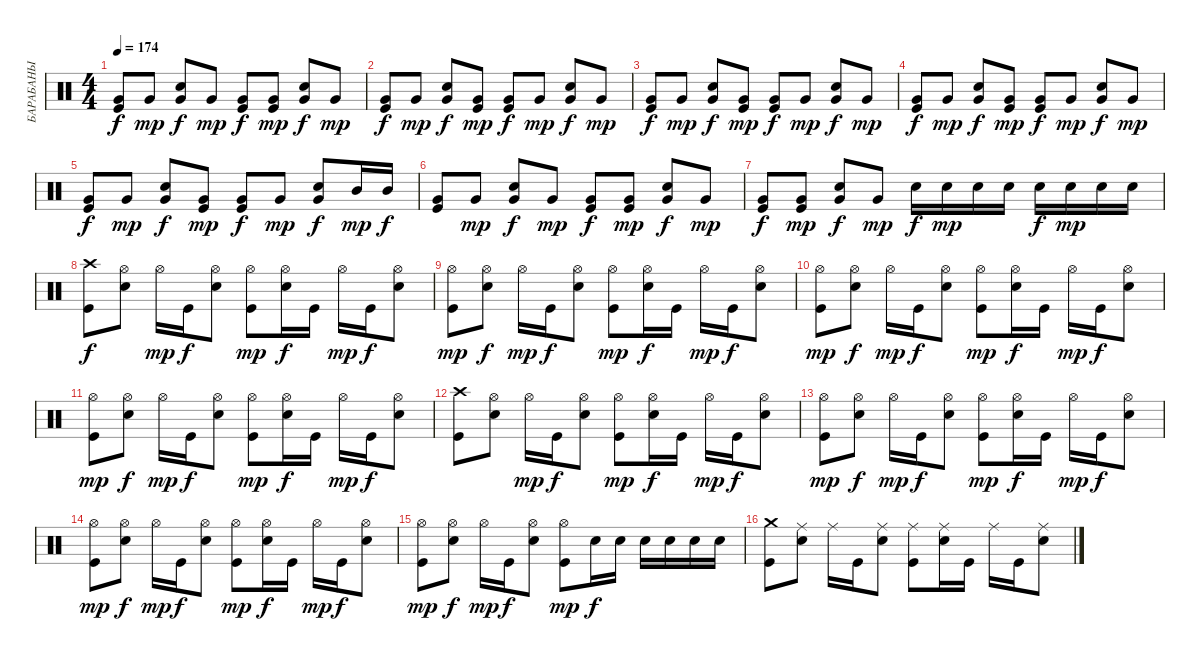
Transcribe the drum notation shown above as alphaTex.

\track ("БАРАБАНЫ" "БАРАБАНЫ") {instrument percussion}
\staff {score}
\articulation defaults
\ts (4 4)
\tempo 174
\clef neutral
\ks c
("Very Low Tom (hit)" "Kick (hit)").8{dy f} "Very Low Tom (hit)".8{dy mp} ("Very Low Tom (hit)" "Electric Snare (hit)").8{dy f} "Very Low Tom (hit)".8{dy mp} ("Very Low Tom (hit)" "Kick (hit)").8{dy f} ("Very Low Tom (hit)" "Kick (hit)").8{dy mp} ("Very Low Tom (hit)" "Electric Snare (hit)").8{dy f} "Very Low Tom (hit)".8{dy mp} |
("Very Low Tom (hit)" "Kick (hit)").8{dy f} "Very Low Tom (hit)".8{dy mp} ("Very Low Tom (hit)" "Electric Snare (hit)").8{dy f} ("Very Low Tom (hit)" "Kick (hit)").8{dy mp} ("Very Low Tom (hit)" "Kick (hit)").8{dy f} "Very Low Tom (hit)".8{dy mp} ("Very Low Tom (hit)" "Electric Snare (hit)").8{dy f} "Very Low Tom (hit)".8{dy mp} |
("Very Low Tom (hit)" "Kick (hit)").8{dy f} "Very Low Tom (hit)".8{dy mp} ("Very Low Tom (hit)" "Electric Snare (hit)").8{dy f} ("Very Low Tom (hit)" "Kick (hit)").8{dy mp} ("Very Low Tom (hit)" "Kick (hit)").8{dy f} "Very Low Tom (hit)".8{dy mp} ("Very Low Tom (hit)" "Electric Snare (hit)").8{dy f} "Very Low Tom (hit)".8{dy mp} |
("Very Low Tom (hit)" "Kick (hit)").8{dy f} "Very Low Tom (hit)".8{dy mp} ("Very Low Tom (hit)" "Electric Snare (hit)").8{dy f} ("Very Low Tom (hit)" "Kick (hit)").8{dy mp} ("Very Low Tom (hit)" "Kick (hit)").8{dy f} "Very Low Tom (hit)".8{dy mp} ("Very Low Tom (hit)" "Electric Snare (hit)").8{dy f} "Very Low Tom (hit)".8{dy mp} |
("Very Low Tom (hit)" "Kick (hit)").8{dy f} "Very Low Tom (hit)".8{dy mp} ("Very Low Tom (hit)" "Electric Snare (hit)").8{dy f} ("Very Low Tom (hit)" "Kick (hit)").8{dy mp} ("Very Low Tom (hit)" "Kick (hit)").8{dy f} "Very Low Tom (hit)".8{dy mp} ("Very Low Tom (hit)" "Electric Snare (hit)").8{dy f} "Mid Tom (hit)".16{dy mp} "Mid Tom (hit)".16{dy f} |
("Very Low Tom (hit)" "Kick (hit)").8 "Very Low Tom (hit)".8{dy mp} ("Very Low Tom (hit)" "Electric Snare (hit)").8{dy f} "Very Low Tom (hit)".8{dy mp} ("Very Low Tom (hit)" "Kick (hit)").8{dy f} ("Very Low Tom (hit)" "Kick (hit)").8{dy mp} ("Very Low Tom (hit)" "Electric Snare (hit)").8{dy f} "Very Low Tom (hit)".8{dy mp} |
("Very Low Tom (hit)" "Kick (hit)").8{dy f} ("Very Low Tom (hit)" "Kick (hit)").8{dy mp} ("Very Low Tom (hit)" "Electric Snare (hit)").8{dy f} "Very Low Tom (hit)".8{dy mp} "Electric Snare (hit)".16{dy f} "Electric Snare (hit)".16{dy mp} "Electric Snare (hit)".16 "Electric Snare (hit)".16 "Electric Snare (hit)".16{dy f} "Electric Snare (hit)".16{dy mp} "Electric Snare (hit)".16 "Electric Snare (hit)".16 |
("Crash high (hit)" "Kick (hit)").8{dy f} ("Hi-Hat (open)" "Electric Snare (hit)").8 "Hi-Hat (open)".16{dy mp} "Kick (hit)".16{dy f} ("Hi-Hat (open)" "Electric Snare (hit)").8 ("Hi-Hat (open)" "Kick (hit)").8{dy mp} ("Hi-Hat (open)" "Electric Snare (hit)").16{dy f} "Kick (hit)".16 "Hi-Hat (open)".16{dy mp} "Kick (hit)".16{dy f} ("Hi-Hat (open)" "Electric Snare (hit)").8 |
("Hi-Hat (open)" "Kick (hit)").8{dy mp} ("Hi-Hat (open)" "Electric Snare (hit)").8{dy f} "Hi-Hat (open)".16{dy mp} "Kick (hit)".16{dy f} ("Hi-Hat (open)" "Electric Snare (hit)").8 ("Hi-Hat (open)" "Kick (hit)").8{dy mp} ("Hi-Hat (open)" "Electric Snare (hit)").16{dy f} "Kick (hit)".16 "Hi-Hat (open)".16{dy mp} "Kick (hit)".16{dy f} ("Hi-Hat (open)" "Electric Snare (hit)").8 |
("Hi-Hat (open)" "Kick (hit)").8{dy mp} ("Hi-Hat (open)" "Electric Snare (hit)").8{dy f} "Hi-Hat (open)".16{dy mp} "Kick (hit)".16{dy f} ("Hi-Hat (open)" "Electric Snare (hit)").8 ("Hi-Hat (open)" "Kick (hit)").8{dy mp} ("Hi-Hat (open)" "Electric Snare (hit)").16{dy f} "Kick (hit)".16 "Hi-Hat (open)".16{dy mp} "Kick (hit)".16{dy f} ("Hi-Hat (open)" "Electric Snare (hit)").8 |
("Hi-Hat (open)" "Kick (hit)").8{dy mp} ("Hi-Hat (open)" "Electric Snare (hit)").8{dy f} "Hi-Hat (open)".16{dy mp} "Kick (hit)".16{dy f} ("Hi-Hat (open)" "Electric Snare (hit)").8 ("Hi-Hat (open)" "Kick (hit)").8{dy mp} ("Hi-Hat (open)" "Electric Snare (hit)").16{dy f} "Kick (hit)".16 "Hi-Hat (open)".16{dy mp} "Kick (hit)".16{dy f} ("Hi-Hat (open)" "Electric Snare (hit)").8 |
("Crash high (hit)" "Kick (hit)").8 ("Hi-Hat (open)" "Electric Snare (hit)").8 "Hi-Hat (open)".16{dy mp} "Kick (hit)".16{dy f} ("Hi-Hat (open)" "Electric Snare (hit)").8 ("Hi-Hat (open)" "Kick (hit)").8{dy mp} ("Hi-Hat (open)" "Electric Snare (hit)").16{dy f} "Kick (hit)".16 "Hi-Hat (open)".16{dy mp} "Kick (hit)".16{dy f} ("Hi-Hat (open)" "Electric Snare (hit)").8 |
("Hi-Hat (open)" "Kick (hit)").8{dy mp} ("Hi-Hat (open)" "Electric Snare (hit)").8{dy f} "Hi-Hat (open)".16{dy mp} "Kick (hit)".16{dy f} ("Hi-Hat (open)" "Electric Snare (hit)").8 ("Hi-Hat (open)" "Kick (hit)").8{dy mp} ("Hi-Hat (open)" "Electric Snare (hit)").16{dy f} "Kick (hit)".16 "Hi-Hat (open)".16{dy mp} "Kick (hit)".16{dy f} ("Hi-Hat (open)" "Electric Snare (hit)").8 |
("Hi-Hat (open)" "Kick (hit)").8{dy mp} ("Hi-Hat (open)" "Electric Snare (hit)").8{dy f} "Hi-Hat (open)".16{dy mp} "Kick (hit)".16{dy f} ("Hi-Hat (open)" "Electric Snare (hit)").8 ("Hi-Hat (open)" "Kick (hit)").8{dy mp} ("Hi-Hat (open)" "Electric Snare (hit)").16{dy f} "Kick (hit)".16 "Hi-Hat (open)".16{dy mp} "Kick (hit)".16{dy f} ("Hi-Hat (open)" "Electric Snare (hit)").8 |
("Hi-Hat (open)" "Kick (hit)").8{dy mp} ("Hi-Hat (open)" "Electric Snare (hit)").8{dy f} "Hi-Hat (open)".16{dy mp} "Kick (hit)".16{dy f} ("Hi-Hat (open)" "Electric Snare (hit)").8 ("Hi-Hat (open)" "Kick (hit)").8{dy mp} "Electric Snare (hit)".16{dy f} "Electric Snare (hit)".16 "Electric Snare (hit)".16 "Electric Snare (hit)".16 "Electric Snare (hit)".16 "Electric Snare (hit)".16 |
("Crash medium (hit)" "Kick (hit)").8 ("Ride (middle)" "Electric Snare (hit)").8 "Ride (middle)".16 "Kick (hit)".16 ("Ride (middle)" "Electric Snare (hit)").8 ("Ride (middle)" "Kick (hit)").8 ("Ride (middle)" "Electric Snare (hit)").16 "Kick (hit)".16 "Ride (middle)".16 "Kick (hit)".16 ("Ride (middle)" "Electric Snare (hit)").8
